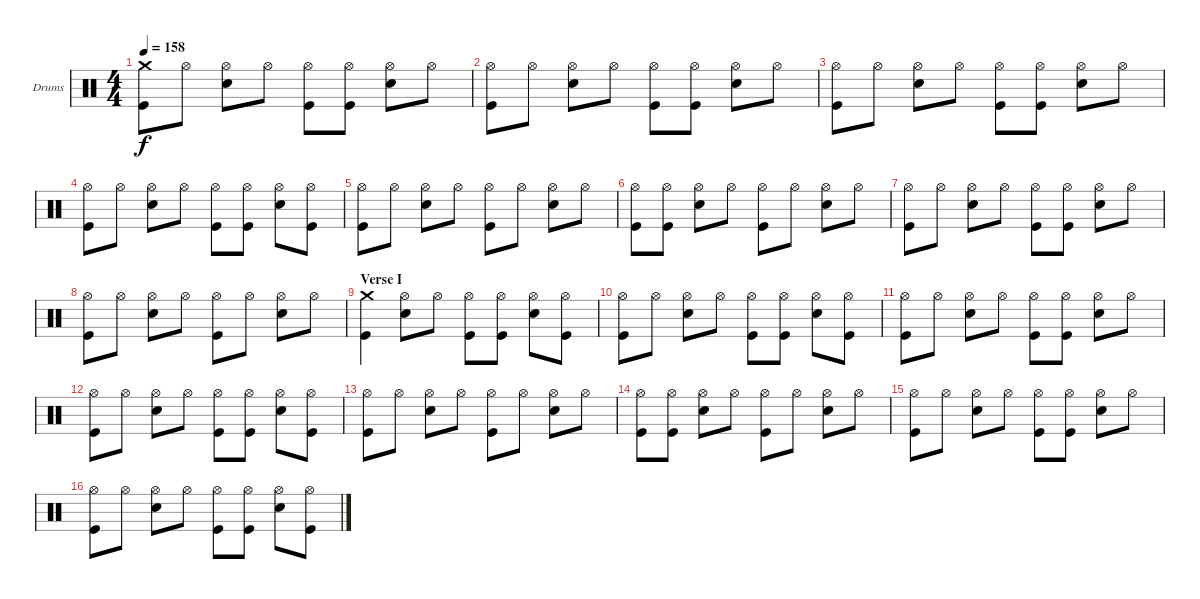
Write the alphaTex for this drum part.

\bracketExtendMode groupsimilarinstruments
\firstSystemTrackNameOrientation horizontal
\otherSystemsTrackNameOrientation horizontal
\track ("Drumkit" "Drums") {instrument percussion}
\staff {score}
\articulation defaults
\ts (4 4)
\tempo 158
\clef neutral
\ks c
("Crash medium (hit)" "Kick (hit)").8{dy f} "Hi-Hat (open)".8 ("Hi-Hat (open)" "Snare (hit) 2").8 "Hi-Hat (open)".8 ("Hi-Hat (open)" "Kick (hit)").8 ("Hi-Hat (open)" "Kick (hit)").8 ("Hi-Hat (open)" "Snare (hit) 2").8 "Hi-Hat (open)".8 |
("Hi-Hat (open)" "Kick (hit)").8 "Hi-Hat (open)".8 ("Hi-Hat (open)" "Snare (hit) 2").8 "Hi-Hat (open)".8 ("Hi-Hat (open)" "Kick (hit)").8 ("Hi-Hat (open)" "Kick (hit)").8 ("Hi-Hat (open)" "Snare (hit) 2").8 "Hi-Hat (open)".8 |
("Hi-Hat (open)" "Kick (hit)").8 "Hi-Hat (open)".8 ("Hi-Hat (open)" "Snare (hit) 2").8 "Hi-Hat (open)".8 ("Hi-Hat (open)" "Kick (hit)").8 ("Hi-Hat (open)" "Kick (hit)").8 ("Hi-Hat (open)" "Snare (hit) 2").8 "Hi-Hat (open)".8 |
("Hi-Hat (open)" "Kick (hit)").8 "Hi-Hat (open)".8 ("Hi-Hat (open)" "Snare (hit) 2").8 "Hi-Hat (open)".8 ("Hi-Hat (open)" "Kick (hit)").8 ("Hi-Hat (open)" "Kick (hit)").8 ("Hi-Hat (open)" "Snare (hit) 2").8 ("Hi-Hat (open)" "Kick (hit)").8 |
("Hi-Hat (open)" "Kick (hit)").8 "Hi-Hat (open)".8 ("Hi-Hat (open)" "Snare (hit) 2").8 "Hi-Hat (open)".8 ("Hi-Hat (open)" "Kick (hit)").8 "Hi-Hat (open)".8 ("Hi-Hat (open)" "Snare (hit) 2").8 "Hi-Hat (open)".8 |
("Hi-Hat (open)" "Kick (hit)").8 ("Hi-Hat (open)" "Kick (hit)").8 ("Hi-Hat (open)" "Snare (hit) 2").8 "Hi-Hat (open)".8 ("Hi-Hat (open)" "Kick (hit)").8 "Hi-Hat (open)".8 ("Hi-Hat (open)" "Snare (hit) 2").8 "Hi-Hat (open)".8 |
("Hi-Hat (open)" "Kick (hit)").8 "Hi-Hat (open)".8 ("Hi-Hat (open)" "Snare (hit) 2").8 "Hi-Hat (open)".8 ("Hi-Hat (open)" "Kick (hit)").8 ("Hi-Hat (open)" "Kick (hit)").8 ("Hi-Hat (open)" "Snare (hit) 2").8 "Hi-Hat (open)".8 |
("Hi-Hat (open)" "Kick (hit)").8 "Hi-Hat (open)".8 ("Hi-Hat (open)" "Snare (hit) 2").8 "Hi-Hat (open)".8 ("Hi-Hat (open)" "Kick (hit)").8 "Hi-Hat (open)".8 ("Hi-Hat (open)" "Snare (hit) 2").8 "Hi-Hat (open)".8 |
\section ("" "Verse I")
("Crash medium (hit)" "Kick (hit)").4 ("Hi-Hat (open)" "Snare (hit) 2").8 "Hi-Hat (open)".8 ("Hi-Hat (open)" "Kick (hit)").8 ("Hi-Hat (open)" "Kick (hit)").8 ("Hi-Hat (open)" "Snare (hit) 2").8 ("Hi-Hat (open)" "Kick (hit)").8 |
("Hi-Hat (open)" "Kick (hit)").8 "Hi-Hat (open)".8 ("Hi-Hat (open)" "Snare (hit) 2").8 "Hi-Hat (open)".8 ("Hi-Hat (open)" "Kick (hit)").8 ("Hi-Hat (open)" "Kick (hit)").8 ("Hi-Hat (open)" "Snare (hit) 2").8 ("Hi-Hat (open)" "Kick (hit)").8 |
("Hi-Hat (open)" "Kick (hit)").8 "Hi-Hat (open)".8 ("Hi-Hat (open)" "Snare (hit) 2").8 "Hi-Hat (open)".8 ("Hi-Hat (open)" "Kick (hit)").8 ("Hi-Hat (open)" "Kick (hit)").8 ("Hi-Hat (open)" "Snare (hit) 2").8 "Hi-Hat (open)".8 |
("Hi-Hat (open)" "Kick (hit)").8 "Hi-Hat (open)".8 ("Hi-Hat (open)" "Snare (hit) 2").8 "Hi-Hat (open)".8 ("Hi-Hat (open)" "Kick (hit)").8 ("Hi-Hat (open)" "Kick (hit)").8 ("Hi-Hat (open)" "Snare (hit) 2").8 ("Hi-Hat (open)" "Kick (hit)").8 |
("Hi-Hat (open)" "Kick (hit)").8 "Hi-Hat (open)".8 ("Hi-Hat (open)" "Snare (hit) 2").8 "Hi-Hat (open)".8 ("Hi-Hat (open)" "Kick (hit)").8 "Hi-Hat (open)".8 ("Hi-Hat (open)" "Snare (hit) 2").8 "Hi-Hat (open)".8 |
("Hi-Hat (open)" "Kick (hit)").8 ("Hi-Hat (open)" "Kick (hit)").8 ("Hi-Hat (open)" "Snare (hit) 2").8 "Hi-Hat (open)".8 ("Hi-Hat (open)" "Kick (hit)").8 "Hi-Hat (open)".8 ("Hi-Hat (open)" "Snare (hit) 2").8 "Hi-Hat (open)".8 |
("Hi-Hat (open)" "Kick (hit)").8 "Hi-Hat (open)".8 ("Hi-Hat (open)" "Snare (hit) 2").8 "Hi-Hat (open)".8 ("Hi-Hat (open)" "Kick (hit)").8 ("Hi-Hat (open)" "Kick (hit)").8 ("Hi-Hat (open)" "Snare (hit) 2").8 "Hi-Hat (open)".8 |
("Hi-Hat (open)" "Kick (hit)").8 "Hi-Hat (open)".8 ("Hi-Hat (open)" "Snare (hit) 2").8 "Hi-Hat (open)".8 ("Hi-Hat (open)" "Kick (hit)").8 ("Hi-Hat (open)" "Kick (hit)").8 ("Hi-Hat (open)" "Snare (hit) 2").8 ("Hi-Hat (open)" "Kick (hit)").8
